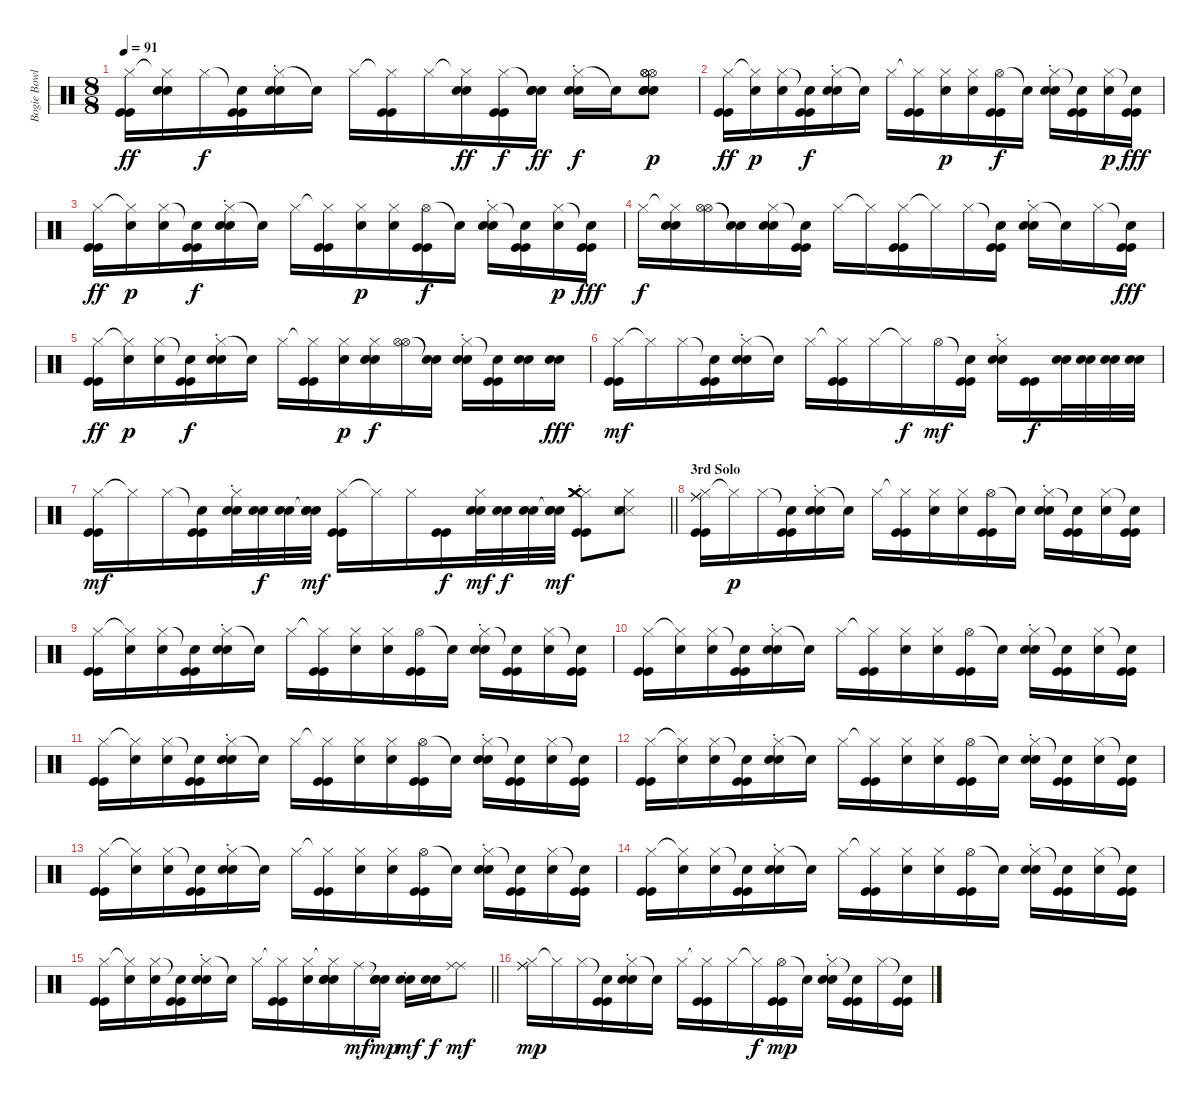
\track ("Bogie Bowles Drums" "Bogie Bowl") {instrument percussion}
\staff {score}
\articulation defaults
\ts (8 8)
\tempo 91
\clef neutral
\ks c
("Hi-Hat (closed)" "Kick (hit)" "Kick (hit)").16{dy ff} ("Hi-Hat (closed)"{t} "Snare (hit) 2" "Snare (hit) 2").16 "Hi-Hat (closed)".16{dy f} ("Snare (hit)"{t} "Kick (hit)" "Kick (hit)").16 ("Hi-Hat (closed)" "Snare (hit) 2"{st} "Snare (hit) 2").16 "Snare (hit)"{t}.16 "Hi-Hat (closed)".16 ("Hi-Hat (closed)"{t} "Kick (hit)" "Kick (hit)").16 "Hi-Hat (closed)".16 ("Hi-Hat (closed)"{t} "Snare (hit) 2" "Snare (hit) 2").16{dy ff} ("Hi-Hat (closed)" "Kick (hit)" "Kick (hit)").16{dy f} ("Snare (hit)"{t} "Snare (hit) 2" "Snare (hit) 2").16{dy ff} ("Hi-Hat (closed)" "Snare (hit) 2"{st} "Snare (hit) 2").16{dy f} "Snare (hit)"{t}.16 ("Hi-Hat (open)" "Hi-Hat (open)" "Hi-Hat (open)" "Snare (hit) 2" "Snare (hit) 2" "Snare (hit) 2").8{dy p} |
("Hi-Hat (closed)" "Kick (hit)" "Kick (hit)").16{dy ff} ("Hi-Hat (closed)"{t} "Snare (hit) 2").16{dy p} ("Hi-Hat (closed)" "Snare (hit) 2").16 ("Snare (hit)"{t} "Kick (hit)" "Kick (hit)").16{dy f} ("Hi-Hat (closed)" "Snare (hit) 2"{st} "Snare (hit) 2").16 "Snare (hit)"{t}.16 "Hi-Hat (closed)".16 ("Hi-Hat (closed)"{t} "Kick (hit)" "Kick (hit)").16 ("Hi-Hat (closed)" "Snare (hit) 2").16{dy p} ("Hi-Hat (closed)" "Snare (hit) 2").16 ("Hi-Hat (open)" "Kick (hit)" "Kick (hit)").16{dy f} "Snare (hit)"{t}.16 ("Hi-Hat (closed)" "Snare (hit) 2"{st} "Snare (hit) 2").16 ("Snare (hit)"{t} "Kick (hit)" "Kick (hit)").16 ("Hi-Hat (closed)" "Snare (hit) 2").16{dy p} ("Snare (hit)"{t} "Kick (hit)" "Kick (hit)").16{dy fff} |
("Hi-Hat (closed)" "Kick (hit)" "Kick (hit)").16{dy ff} ("Hi-Hat (closed)"{t} "Snare (hit) 2").16{dy p} ("Hi-Hat (closed)" "Snare (hit) 2").16 ("Snare (hit)"{t} "Kick (hit)" "Kick (hit)").16{dy f} ("Hi-Hat (closed)" "Snare (hit) 2"{st} "Snare (hit) 2").16 "Snare (hit)"{t}.16 "Hi-Hat (closed)".16 ("Hi-Hat (closed)"{t} "Kick (hit)" "Kick (hit)").16 ("Hi-Hat (closed)" "Snare (hit) 2").16{dy p} ("Hi-Hat (closed)" "Snare (hit) 2").16 ("Hi-Hat (open)" "Kick (hit)" "Kick (hit)").16{dy f} "Snare (hit)"{t}.16 ("Hi-Hat (closed)" "Snare (hit) 2"{st} "Snare (hit) 2").16 ("Snare (hit)"{t} "Kick (hit)" "Kick (hit)").16 ("Hi-Hat (closed)" "Snare (hit) 2").16{dy p} ("Snare (hit)"{t} "Kick (hit)" "Kick (hit)").16{dy fff} |
"Hi-Hat (closed)".16{dy f} ("Hi-Hat (closed)"{t} "Snare (hit) 2" "Snare (hit) 2").16 ("Hi-Hat (open)" "Hi-Hat (open)").16 ("Snare (hit)"{t} "Snare (hit)"{t}).16 ("Hi-Hat (closed)" "Snare (hit) 2" "Snare (hit) 2").16 ("Snare (hit)"{t} "Kick (hit)" "Kick (hit)").16 "Hi-Hat (closed)".16 "Hi-Hat (closed)"{t}.16 ("Hi-Hat (closed)" "Kick (hit)" "Kick (hit)").16 "Hi-Hat (closed)"{t}.16 "Hi-Hat (closed)".16 ("Snare (hit)"{t} "Kick (hit)" "Kick (hit)").16 ("Hi-Hat (closed)" "Snare (hit) 2"{st} "Snare (hit) 2").16 "Snare (hit)"{t}.16 "Hi-Hat (closed)".16 ("Snare (hit)"{t} "Kick (hit)" "Kick (hit)").16{dy fff} |
("Hi-Hat (closed)" "Kick (hit)" "Kick (hit)").16{dy ff} ("Hi-Hat (closed)"{t} "Snare (hit) 2").16{dy p} ("Hi-Hat (closed)" "Snare (hit) 2").16 ("Snare (hit)"{t} "Kick (hit)" "Kick (hit)").16{dy f} ("Hi-Hat (closed)" "Snare (hit) 2"{st} "Snare (hit) 2").16 "Snare (hit)"{t}.16 "Hi-Hat (closed)".16 ("Hi-Hat (closed)"{t} "Kick (hit)" "Kick (hit)").16 ("Hi-Hat (closed)" "Snare (hit) 2").16{dy p} ("Hi-Hat (closed)" "Snare (hit) 2" "Snare (hit) 2").16{dy f} ("Hi-Hat (open)" "Hi-Hat (open)").16 ("Snare (hit)"{t} "Snare (hit)"{t}).16 ("Hi-Hat (closed)" "Snare (hit) 2"{st} "Snare (hit) 2").16 ("Snare (hit)"{t} "Kick (hit)" "Kick (hit)").16 ("Snare (hit) 2" "Snare (hit) 2").16 ("Snare (hit) 2" "Snare (hit) 2").16{dy fff} |
("Hi-Hat (closed)" "Kick (hit)" "Kick (hit)").16{dy mf} "Hi-Hat (closed)"{t}.16 "Hi-Hat (closed)".16 ("Snare (hit)"{t} "Kick (hit)" "Kick (hit)").16 ("Hi-Hat (closed)" "Snare (hit) 2"{st} "Snare (hit) 2").16 "Snare (hit)"{t}.16 "Hi-Hat (closed)".16 ("Hi-Hat (closed)"{t} "Kick (hit)" "Kick (hit)").16 "Hi-Hat (closed)".16 "Hi-Hat (closed)"{t}.16{dy f} "Hi-Hat (open)".16{dy mf} ("Snare (hit)"{t} "Kick (hit)" "Kick (hit)").16 ("Hi-Hat (closed)" "Snare (hit) 2"{st} "Snare (hit) 2").16 ("Kick (hit)" "Kick (hit)").16{dy f} ("Snare (hit) 2" "Snare (hit) 2").32 ("Snare (hit) 2" "Snare (hit) 2").32 ("Snare (hit) 2" "Snare (hit) 2").32 ("Snare (hit) 2" "Snare (hit) 2").32 |
\barLineRight lightlight
("Hi-Hat (closed)" "Kick (hit)" "Kick (hit)").16{dy mf} "Hi-Hat (closed)"{t}.16 "Hi-Hat (closed)".16 ("Snare (hit)"{t} "Kick (hit)" "Kick (hit)").16 ("Hi-Hat (closed)" "Snare (hit) 2"{st} "Snare (hit) 2").32 ("Snare (hit) 2" "Snare (hit) 2").32{dy f} ("Snare (hit) 2" "Snare (hit) 2").32 ("Snare (hit)"{t} "Snare (hit) 2" "Snare (hit) 2").32{dy mf} ("Hi-Hat (closed)" "Kick (hit)" "Kick (hit)").16 "Hi-Hat (closed)"{t}.16 "Hi-Hat (closed)".16 ("Kick (hit)" "Kick (hit)").16{dy f} ("Hi-Hat (closed)" "Snare (hit) 2" "Snare (hit) 2").32{dy mf} ("Snare (hit) 2" "Snare (hit) 2").32{dy f} ("Snare (hit) 2" "Snare (hit) 2").32 ("Snare (hit)"{t} "Snare (hit) 2" "Snare (hit) 2").32{dy mf} ("Hi-Hat (closed)" "Kick (hit)"{st} "Kick (hit)" "Crash medium (hit)" "Crash medium (hit)").8 ("Hi-Hat (closed)" "Snare (side stick) 3" "Snare (side stick) 3" "Snare (hit) 2").8 |
\section ("" "3rd Solo")
("Hi-Hat (closed)" "Kick (hit)" "Kick (hit)" "Ride (middle)" "Ride (middle)").16 "Hi-Hat (closed)"{t}.16{dy p} "Hi-Hat (closed)".16 ("Snare (hit)"{t} "Kick (hit)" "Kick (hit)").16 ("Hi-Hat (closed)" "Snare (hit) 2"{st} "Snare (hit) 2").16 "Snare (hit)"{t}.16 "Hi-Hat (closed)".16 ("Hi-Hat (closed)"{t} "Kick (hit)" "Kick (hit)").16 ("Hi-Hat (closed)" "Snare (hit) 2").16 ("Hi-Hat (closed)" "Snare (hit) 2").16 ("Hi-Hat (open)" "Kick (hit)" "Kick (hit)").16 "Snare (hit)"{t}.16 ("Hi-Hat (closed)" "Snare (hit) 2"{st} "Snare (hit) 2").16 ("Snare (hit)"{t} "Kick (hit)" "Kick (hit)").16 ("Hi-Hat (closed)" "Snare (hit) 2").16 ("Snare (hit)"{t} "Kick (hit)" "Kick (hit)").16 |
("Hi-Hat (closed)" "Kick (hit)" "Kick (hit)").16 ("Hi-Hat (closed)"{t} "Snare (hit) 2").16 ("Hi-Hat (closed)" "Snare (hit) 2").16 ("Snare (hit)"{t} "Kick (hit)" "Kick (hit)").16 ("Hi-Hat (closed)" "Snare (hit) 2"{st} "Snare (hit) 2").16 "Snare (hit)"{t}.16 "Hi-Hat (closed)".16 ("Hi-Hat (closed)"{t} "Kick (hit)" "Kick (hit)").16 ("Hi-Hat (closed)" "Snare (hit) 2").16 ("Hi-Hat (closed)" "Snare (hit) 2").16 ("Hi-Hat (open)" "Kick (hit)" "Kick (hit)").16 "Snare (hit)"{t}.16 ("Hi-Hat (closed)" "Snare (hit) 2"{st} "Snare (hit) 2").16 ("Snare (hit)"{t} "Kick (hit)" "Kick (hit)").16 ("Hi-Hat (closed)" "Snare (hit) 2").16 ("Snare (hit)"{t} "Kick (hit)" "Kick (hit)").16 |
("Hi-Hat (closed)" "Kick (hit)" "Kick (hit)").16 ("Hi-Hat (closed)"{t} "Snare (hit) 2").16 ("Hi-Hat (closed)" "Snare (hit) 2").16 ("Snare (hit)"{t} "Kick (hit)" "Kick (hit)").16 ("Hi-Hat (closed)" "Snare (hit) 2"{st} "Snare (hit) 2").16 "Snare (hit)"{t}.16 "Hi-Hat (closed)".16 ("Hi-Hat (closed)"{t} "Kick (hit)" "Kick (hit)").16 ("Hi-Hat (closed)" "Snare (hit) 2").16 ("Hi-Hat (closed)" "Snare (hit) 2").16 ("Hi-Hat (open)" "Kick (hit)" "Kick (hit)").16 "Snare (hit)"{t}.16 ("Hi-Hat (closed)" "Snare (hit) 2"{st} "Snare (hit) 2").16 ("Snare (hit)"{t} "Kick (hit)" "Kick (hit)").16 ("Hi-Hat (closed)" "Snare (hit) 2").16 ("Snare (hit)"{t} "Kick (hit)" "Kick (hit)").16 |
("Hi-Hat (closed)" "Kick (hit)" "Kick (hit)").16 ("Hi-Hat (closed)"{t} "Snare (hit) 2").16 ("Hi-Hat (closed)" "Snare (hit) 2").16 ("Snare (hit)"{t} "Kick (hit)" "Kick (hit)").16 ("Hi-Hat (closed)" "Snare (hit) 2"{st} "Snare (hit) 2").16 "Snare (hit)"{t}.16 "Hi-Hat (closed)".16 ("Hi-Hat (closed)"{t} "Kick (hit)" "Kick (hit)").16 ("Hi-Hat (closed)" "Snare (hit) 2").16 ("Hi-Hat (closed)" "Snare (hit) 2").16 ("Hi-Hat (open)" "Kick (hit)" "Kick (hit)").16 "Snare (hit)"{t}.16 ("Hi-Hat (closed)" "Snare (hit) 2"{st} "Snare (hit) 2").16 ("Snare (hit)"{t} "Kick (hit)" "Kick (hit)").16 ("Hi-Hat (closed)" "Snare (hit) 2").16 ("Snare (hit)"{t} "Kick (hit)" "Kick (hit)").16 |
("Hi-Hat (closed)" "Kick (hit)" "Kick (hit)").16 ("Hi-Hat (closed)"{t} "Snare (hit) 2").16 ("Hi-Hat (closed)" "Snare (hit) 2").16 ("Snare (hit)"{t} "Kick (hit)" "Kick (hit)").16 ("Hi-Hat (closed)" "Snare (hit) 2"{st} "Snare (hit) 2").16 "Snare (hit)"{t}.16 "Hi-Hat (closed)".16 ("Hi-Hat (closed)"{t} "Kick (hit)" "Kick (hit)").16 ("Hi-Hat (closed)" "Snare (hit) 2").16 ("Hi-Hat (closed)" "Snare (hit) 2").16 ("Hi-Hat (open)" "Kick (hit)" "Kick (hit)").16 "Snare (hit)"{t}.16 ("Hi-Hat (closed)" "Snare (hit) 2"{st} "Snare (hit) 2").16 ("Snare (hit)"{t} "Kick (hit)" "Kick (hit)").16 ("Hi-Hat (closed)" "Snare (hit) 2").16 ("Snare (hit)"{t} "Kick (hit)" "Kick (hit)").16 |
("Hi-Hat (closed)" "Kick (hit)" "Kick (hit)").16 ("Hi-Hat (closed)"{t} "Snare (hit) 2").16 ("Hi-Hat (closed)" "Snare (hit) 2").16 ("Snare (hit)"{t} "Kick (hit)" "Kick (hit)").16 ("Hi-Hat (closed)" "Snare (hit) 2"{st} "Snare (hit) 2").16 "Snare (hit)"{t}.16 "Hi-Hat (closed)".16 ("Hi-Hat (closed)"{t} "Kick (hit)" "Kick (hit)").16 ("Hi-Hat (closed)" "Snare (hit) 2").16 ("Hi-Hat (closed)" "Snare (hit) 2").16 ("Hi-Hat (open)" "Kick (hit)" "Kick (hit)").16 "Snare (hit)"{t}.16 ("Hi-Hat (closed)" "Snare (hit) 2"{st} "Snare (hit) 2").16 ("Snare (hit)"{t} "Kick (hit)" "Kick (hit)").16 ("Hi-Hat (closed)" "Snare (hit) 2").16 ("Snare (hit)"{t} "Kick (hit)" "Kick (hit)").16 |
("Hi-Hat (closed)" "Kick (hit)" "Kick (hit)").16 ("Hi-Hat (closed)"{t} "Snare (hit) 2").16 ("Hi-Hat (closed)" "Snare (hit) 2").16 ("Snare (hit)"{t} "Kick (hit)" "Kick (hit)").16 ("Hi-Hat (closed)" "Snare (hit) 2"{st} "Snare (hit) 2").16 "Snare (hit)"{t}.16 "Hi-Hat (closed)".16 ("Hi-Hat (closed)"{t} "Kick (hit)" "Kick (hit)").16 ("Hi-Hat (closed)" "Snare (hit) 2").16 ("Hi-Hat (closed)" "Snare (hit) 2").16 ("Hi-Hat (open)" "Kick (hit)" "Kick (hit)").16 "Snare (hit)"{t}.16 ("Hi-Hat (closed)" "Snare (hit) 2"{st} "Snare (hit) 2").16 ("Snare (hit)"{t} "Kick (hit)" "Kick (hit)").16 ("Hi-Hat (closed)" "Snare (hit) 2").16 ("Snare (hit)"{t} "Kick (hit)" "Kick (hit)").16 |
\barLineRight lightlight
("Hi-Hat (closed)" "Kick (hit)" "Kick (hit)").16 ("Hi-Hat (closed)"{t} "Snare (hit) 2").16 ("Hi-Hat (closed)" "Snare (hit) 2").16 ("Snare (hit)"{t} "Kick (hit)" "Kick (hit)").16 ("Hi-Hat (closed)" "Snare (hit) 2"{st} "Snare (hit) 2").16 "Snare (hit)"{t}.16 "Hi-Hat (closed)".16 ("Hi-Hat (closed)"{t} "Kick (hit)" "Kick (hit)").16 ("Hi-Hat (closed)" "Snare (hit) 2").16 ("Hi-Hat (closed)"{t} "Snare (hit) 2" "Snare (hit) 2" "Snare (hit) 2").16 "Ride (middle)".16{dy mf} ("Snare (hit)"{t} "Snare (hit) 2" "Snare (hit) 2").16{dy mp} ("Snare (hit) 2"{st} "Snare (hit) 2").16{dy mf} ("Snare (hit) 2" "Snare (hit) 2").16{dy f} ("Ride (middle)" "Ride (middle)").8{dy mf} |
("Hi-Hat (closed)" "Ride (middle)" "Ride (middle)").16{dy mp} "Hi-Hat (closed)"{t}.16 "Hi-Hat (closed)".16 ("Snare (hit)"{t} "Kick (hit)" "Kick (hit)").16 ("Hi-Hat (closed)" "Snare (hit) 2"{st} "Snare (hit) 2").16 "Snare (hit)"{t}.16 "Hi-Hat (closed)".16 ("Hi-Hat (closed)"{t} "Kick (hit)" "Kick (hit)").16 "Hi-Hat (closed)".16 "Hi-Hat (closed)"{t}.16{dy f} ("Hi-Hat (open)" "Kick (hit)" "Kick (hit)").16{dy mp} "Snare (hit)"{t}.16 ("Hi-Hat (closed)" "Snare (hit) 2"{st} "Snare (hit) 2").16 ("Snare (hit)"{t} "Kick (hit)" "Kick (hit)").16 "Hi-Hat (closed)".16 ("Snare (hit)"{t} "Kick (hit)" "Kick (hit)").16
